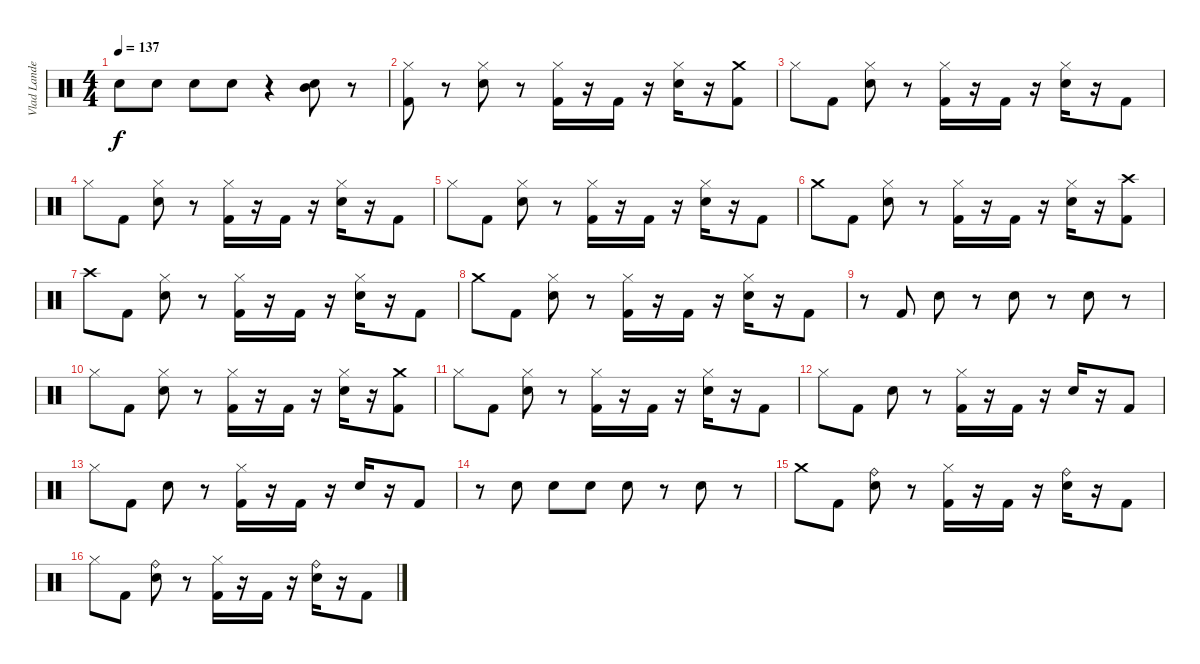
\track ("Vlad Landeros" "Vlad Lande") {instrument percussion}
\staff {score}
\articulation defaults
\ts (4 4)
\tempo 137
\clef neutral
\ks c "Electric Snare (hit)".8{dy f} "Electric Snare (hit)".8 "Electric Snare (hit)".8 "Electric Snare (hit)".8
r.4 ("Electric Snare (hit)" "Mid Tom (hit)").8 r.8 |
("Kick (hit) 2" "Hi-Hat (closed)").8 r.8 ("Electric Snare (hit)" "Hi-Hat (closed)").8 r.8 ("Kick (hit) 2" "Hi-Hat (closed)").16 r.16 "Kick (hit) 2".16 r.16 ("Electric Snare (hit)" "Hi-Hat (closed)").16 r.16 ("Kick (hit) 2" "Crash medium (hit)").8 |
"Hi-Hat (closed)".8 "Kick (hit) 2".8 ("Electric Snare (hit)" "Hi-Hat (closed)").8 r.8 ("Kick (hit) 2" "Hi-Hat (closed)").16 r.16 "Kick (hit) 2".16 r.16 ("Electric Snare (hit)" "Hi-Hat (closed)").16 r.16 "Kick (hit) 2".8 |
"Hi-Hat (closed)".8 "Kick (hit) 2".8 ("Electric Snare (hit)" "Hi-Hat (closed)").8 r.8 ("Kick (hit) 2" "Hi-Hat (closed)").16 r.16 "Kick (hit) 2".16 r.16 ("Electric Snare (hit)" "Hi-Hat (closed)").16 r.16 "Kick (hit) 2".8 |
"Hi-Hat (closed)".8 "Kick (hit) 2".8 ("Electric Snare (hit)" "Hi-Hat (closed)").8 r.8 ("Kick (hit) 2" "Hi-Hat (closed)").16 r.16 "Kick (hit) 2".16 r.16 ("Electric Snare (hit)" "Hi-Hat (closed)").16 r.16 "Kick (hit) 2".8 |
"Crash medium (hit)".8 "Kick (hit) 2".8 ("Electric Snare (hit)" "Hi-Hat (closed)").8 r.8 ("Kick (hit) 2" "Hi-Hat (closed)").16 r.16 "Kick (hit) 2".16 r.16 ("Electric Snare (hit)" "Hi-Hat (closed)").16 r.16 ("Kick (hit) 2" "Crash high (hit)").8 |
"Crash high (hit)".8 "Kick (hit) 2".8 ("Electric Snare (hit)" "Hi-Hat (closed)").8 r.8 ("Kick (hit) 2" "Hi-Hat (closed)").16 r.16 "Kick (hit) 2".16 r.16 ("Electric Snare (hit)" "Hi-Hat (closed)").16 r.16 "Kick (hit) 2".8 |
"Crash medium (hit)".8 "Kick (hit) 2".8 ("Electric Snare (hit)" "Hi-Hat (closed)").8 r.8 ("Kick (hit) 2" "Hi-Hat (closed)").16 r.16 "Kick (hit) 2".16 r.16 ("Electric Snare (hit)" "Hi-Hat (closed)").16 r.16 "Kick (hit) 2".8 |
r.8 "Kick (hit) 2".8 "Electric Snare (hit)".8 r.8 "Electric Snare (hit)".8 r.8 "Electric Snare (hit)".8 r.8 |
"Hi-Hat (closed)".8 "Kick (hit) 2".8 ("Electric Snare (hit)" "Hi-Hat (closed)").8 r.8 ("Kick (hit) 2" "Hi-Hat (closed)").16 r.16 "Kick (hit) 2".16 r.16 ("Electric Snare (hit)" "Hi-Hat (closed)").16 r.16 ("Kick (hit) 2" "Crash medium (hit)").8 |
"Hi-Hat (closed)".8 "Kick (hit) 2".8 ("Electric Snare (hit)" "Hi-Hat (closed)").8 r.8 ("Kick (hit) 2" "Hi-Hat (closed)").16 r.16 "Kick (hit) 2".16 r.16 ("Electric Snare (hit)" "Hi-Hat (closed)").16 r.16 "Kick (hit) 2".8 |
"Hi-Hat (closed)".8 "Kick (hit) 2".8 "Electric Snare (hit)".8 r.8 ("Kick (hit) 2" "Hi-Hat (closed)").16 r.16 "Kick (hit) 2".16 r.16 "Electric Snare (hit)".16 r.16 "Kick (hit) 2".8 |
"Hi-Hat (closed)".8 "Kick (hit) 2".8 "Electric Snare (hit)".8 r.8 ("Kick (hit) 2" "Hi-Hat (closed)").16 r.16 "Kick (hit) 2".16 r.16 "Electric Snare (hit)".16 r.16 "Kick (hit) 2".8 |
r.8 "Electric Snare (hit)".8 "Electric Snare (hit)".8 "Electric Snare (hit)".8 "Electric Snare (hit)".8 r.8 "Electric Snare (hit)".8 r.8 |
"Crash medium (hit)".8 "Kick (hit) 2".8 ("Electric Snare (hit)" "Ride (bell)").8 r.8 ("Kick (hit) 2" "Hi-Hat (closed)").16 r.16 "Kick (hit) 2".16 r.16 ("Electric Snare (hit)" "Ride (bell)").16 r.16 "Kick (hit) 2".8 |
"Hi-Hat (closed)".8 "Kick (hit) 2".8 ("Electric Snare (hit)" "Ride (bell)").8 r.8 ("Kick (hit) 2" "Hi-Hat (closed)").16 r.16 "Kick (hit) 2".16 r.16 ("Electric Snare (hit)" "Ride (bell)").16 r.16 "Kick (hit) 2".8
